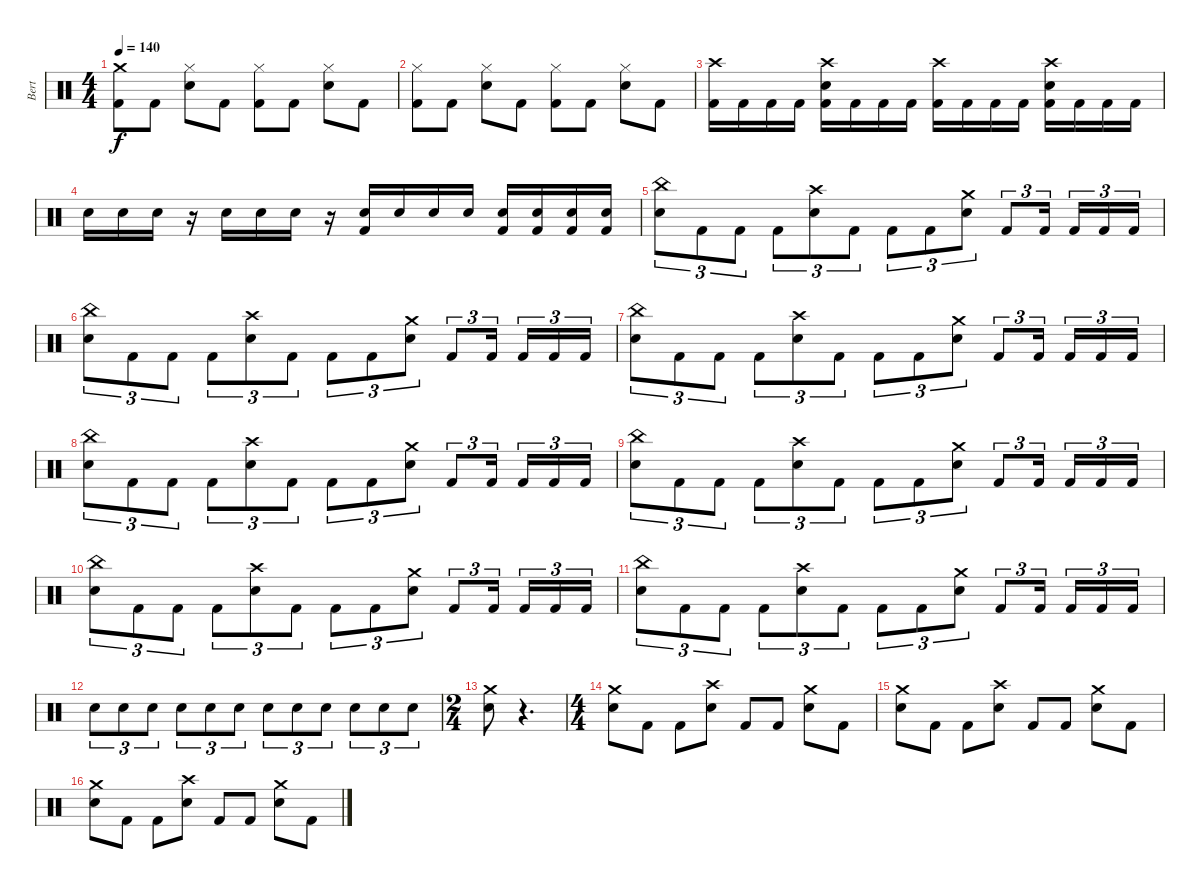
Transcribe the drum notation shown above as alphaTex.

\track ("Bert" "Bert") {instrument percussion}
\staff {score}
\articulation defaults
\ts (4 4)
\tempo 140
\clef neutral
\ks c
("Crash medium (hit)" "Kick (hit) 2").8{dy f} "Kick (hit) 2".8 ("Hi-Hat (closed)" "Snare (hit) 2").8 "Kick (hit) 2".8 ("Hi-Hat (closed)" "Kick (hit) 2").8 "Kick (hit) 2".8 ("Hi-Hat (closed)" "Snare (hit) 2").8 "Kick (hit) 2".8 |
("Hi-Hat (closed)" "Kick (hit) 2").8 "Kick (hit) 2".8 ("Hi-Hat (closed)" "Snare (hit) 2").8 "Kick (hit) 2".8 ("Hi-Hat (closed)" "Kick (hit) 2").8 "Kick (hit) 2".8 ("Hi-Hat (closed)" "Snare (hit) 2").8 "Kick (hit) 2".8 |
("Crash high (hit)" "Kick (hit) 2").16 "Kick (hit) 2".16 "Kick (hit) 2".16 "Kick (hit) 2".16 ("Crash high (hit)" "Snare (hit) 2" "Kick (hit) 2").16 "Kick (hit) 2".16 "Kick (hit) 2".16 "Kick (hit) 2".16 ("Crash high (hit)" "Kick (hit) 2").16 "Kick (hit) 2".16 "Kick (hit) 2".16 "Kick (hit) 2".16 ("Crash high (hit)" "Snare (hit) 2" "Kick (hit) 2").16 "Kick (hit) 2".16 "Kick (hit) 2".16 "Kick (hit) 2".16 |
"Snare (hit) 2".16 "Snare (hit) 2".16 "Snare (hit) 2".16 r.16 "Snare (hit) 2".16 "Snare (hit) 2".16 "Snare (hit) 2".16 r.16 ("Snare (hit) 2" "Kick (hit) 2").16 "Snare (hit) 2".16 "Snare (hit) 2".16 "Snare (hit) 2".16 ("Snare (hit) 2" "Kick (hit) 2").16 ("Snare (hit) 2" "Kick (hit) 2").16 ("Snare (hit) 2" "Kick (hit) 2").16 ("Snare (hit) 2" "Kick (hit) 2").16 |
("China (hit)" "Snare (hit) 2").8{tu (3 2)} "Kick (hit) 2".8{tu (3 2)} "Kick (hit) 2".8{tu (3 2)} "Kick (hit) 2".8{tu (3 2)} ("Crash high (hit)" "Snare (hit) 2").8{tu (3 2)} "Kick (hit) 2".8{tu (3 2)} "Kick (hit) 2".8{tu (3 2)} "Kick (hit) 2".8{tu (3 2)} ("Crash medium (hit)" "Snare (hit) 2").8{tu (3 2)} "Kick (hit) 2".8{tu (3 2)} "Kick (hit) 2".16{tu (3 2)} "Kick (hit) 2".16{tu (3 2)} "Kick (hit) 2".16{tu (3 2)} "Kick (hit) 2".16{tu (3 2)} |
("China (hit)" "Snare (hit) 2").8{tu (3 2)} "Kick (hit) 2".8{tu (3 2)} "Kick (hit) 2".8{tu (3 2)} "Kick (hit) 2".8{tu (3 2)} ("Crash high (hit)" "Snare (hit) 2").8{tu (3 2)} "Kick (hit) 2".8{tu (3 2)} "Kick (hit) 2".8{tu (3 2)} "Kick (hit) 2".8{tu (3 2)} ("Crash medium (hit)" "Snare (hit) 2").8{tu (3 2)} "Kick (hit) 2".8{tu (3 2)} "Kick (hit) 2".16{tu (3 2)} "Kick (hit) 2".16{tu (3 2)} "Kick (hit) 2".16{tu (3 2)} "Kick (hit) 2".16{tu (3 2)} |
("China (hit)" "Snare (hit) 2").8{tu (3 2)} "Kick (hit) 2".8{tu (3 2)} "Kick (hit) 2".8{tu (3 2)} "Kick (hit) 2".8{tu (3 2)} ("Crash high (hit)" "Snare (hit) 2").8{tu (3 2)} "Kick (hit) 2".8{tu (3 2)} "Kick (hit) 2".8{tu (3 2)} "Kick (hit) 2".8{tu (3 2)} ("Crash medium (hit)" "Snare (hit) 2").8{tu (3 2)} "Kick (hit) 2".8{tu (3 2)} "Kick (hit) 2".16{tu (3 2)} "Kick (hit) 2".16{tu (3 2)} "Kick (hit) 2".16{tu (3 2)} "Kick (hit) 2".16{tu (3 2)} |
("China (hit)" "Snare (hit) 2").8{tu (3 2)} "Kick (hit) 2".8{tu (3 2)} "Kick (hit) 2".8{tu (3 2)} "Kick (hit) 2".8{tu (3 2)} ("Crash high (hit)" "Snare (hit) 2").8{tu (3 2)} "Kick (hit) 2".8{tu (3 2)} "Kick (hit) 2".8{tu (3 2)} "Kick (hit) 2".8{tu (3 2)} ("Crash medium (hit)" "Snare (hit) 2").8{tu (3 2)} "Kick (hit) 2".8{tu (3 2)} "Kick (hit) 2".16{tu (3 2)} "Kick (hit) 2".16{tu (3 2)} "Kick (hit) 2".16{tu (3 2)} "Kick (hit) 2".16{tu (3 2)} |
("China (hit)" "Snare (hit) 2").8{tu (3 2)} "Kick (hit) 2".8{tu (3 2)} "Kick (hit) 2".8{tu (3 2)} "Kick (hit) 2".8{tu (3 2)} ("Crash high (hit)" "Snare (hit) 2").8{tu (3 2)} "Kick (hit) 2".8{tu (3 2)} "Kick (hit) 2".8{tu (3 2)} "Kick (hit) 2".8{tu (3 2)} ("Crash medium (hit)" "Snare (hit) 2").8{tu (3 2)} "Kick (hit) 2".8{tu (3 2)} "Kick (hit) 2".16{tu (3 2)} "Kick (hit) 2".16{tu (3 2)} "Kick (hit) 2".16{tu (3 2)} "Kick (hit) 2".16{tu (3 2)} |
("China (hit)" "Snare (hit) 2").8{tu (3 2)} "Kick (hit) 2".8{tu (3 2)} "Kick (hit) 2".8{tu (3 2)} "Kick (hit) 2".8{tu (3 2)} ("Crash high (hit)" "Snare (hit) 2").8{tu (3 2)} "Kick (hit) 2".8{tu (3 2)} "Kick (hit) 2".8{tu (3 2)} "Kick (hit) 2".8{tu (3 2)} ("Crash medium (hit)" "Snare (hit) 2").8{tu (3 2)} "Kick (hit) 2".8{tu (3 2)} "Kick (hit) 2".16{tu (3 2)} "Kick (hit) 2".16{tu (3 2)} "Kick (hit) 2".16{tu (3 2)} "Kick (hit) 2".16{tu (3 2)} |
("China (hit)" "Snare (hit) 2").8{tu (3 2)} "Kick (hit) 2".8{tu (3 2)} "Kick (hit) 2".8{tu (3 2)} "Kick (hit) 2".8{tu (3 2)} ("Crash high (hit)" "Snare (hit) 2").8{tu (3 2)} "Kick (hit) 2".8{tu (3 2)} "Kick (hit) 2".8{tu (3 2)} "Kick (hit) 2".8{tu (3 2)} ("Crash medium (hit)" "Snare (hit) 2").8{tu (3 2)} "Kick (hit) 2".8{tu (3 2)} "Kick (hit) 2".16{tu (3 2)} "Kick (hit) 2".16{tu (3 2)} "Kick (hit) 2".16{tu (3 2)} "Kick (hit) 2".16{tu (3 2)} |
"Snare (hit) 2".8{tu (3 2)} "Snare (hit) 2".8{tu (3 2)} "Snare (hit) 2".8{tu (3 2)} "Snare (hit) 2".8{tu (3 2)} "Snare (hit) 2".8{tu (3 2)} "Snare (hit) 2".8{tu (3 2)} "Snare (hit) 2".8{tu (3 2)} "Snare (hit) 2".8{tu (3 2)} "Snare (hit) 2".8{tu (3 2)} "Snare (hit) 2".8{tu (3 2)} "Snare (hit) 2".8{tu (3 2)} "Snare (hit) 2".8{tu (3 2)} |
\ts (2 4)
("Crash medium (hit)" "Snare (hit) 2").8 r.4{d} |
\ts (4 4)
("Crash medium (hit)" "Snare (hit) 2").8 "Kick (hit) 2".8 "Kick (hit) 2".8 ("Crash high (hit)" "Snare (hit) 2").8 "Kick (hit) 2".8 "Kick (hit) 2".8 ("Crash medium (hit)" "Snare (hit) 2").8 "Kick (hit) 2".8 |
("Crash medium (hit)" "Snare (hit) 2").8 "Kick (hit) 2".8 "Kick (hit) 2".8 ("Crash high (hit)" "Snare (hit) 2").8 "Kick (hit) 2".8 "Kick (hit) 2".8 ("Crash medium (hit)" "Snare (hit) 2").8 "Kick (hit) 2".8 |
("Crash medium (hit)" "Snare (hit) 2").8 "Kick (hit) 2".8 "Kick (hit) 2".8 ("Crash high (hit)" "Snare (hit) 2").8 "Kick (hit) 2".8 "Kick (hit) 2".8 ("Crash medium (hit)" "Snare (hit) 2").8 "Kick (hit) 2".8
